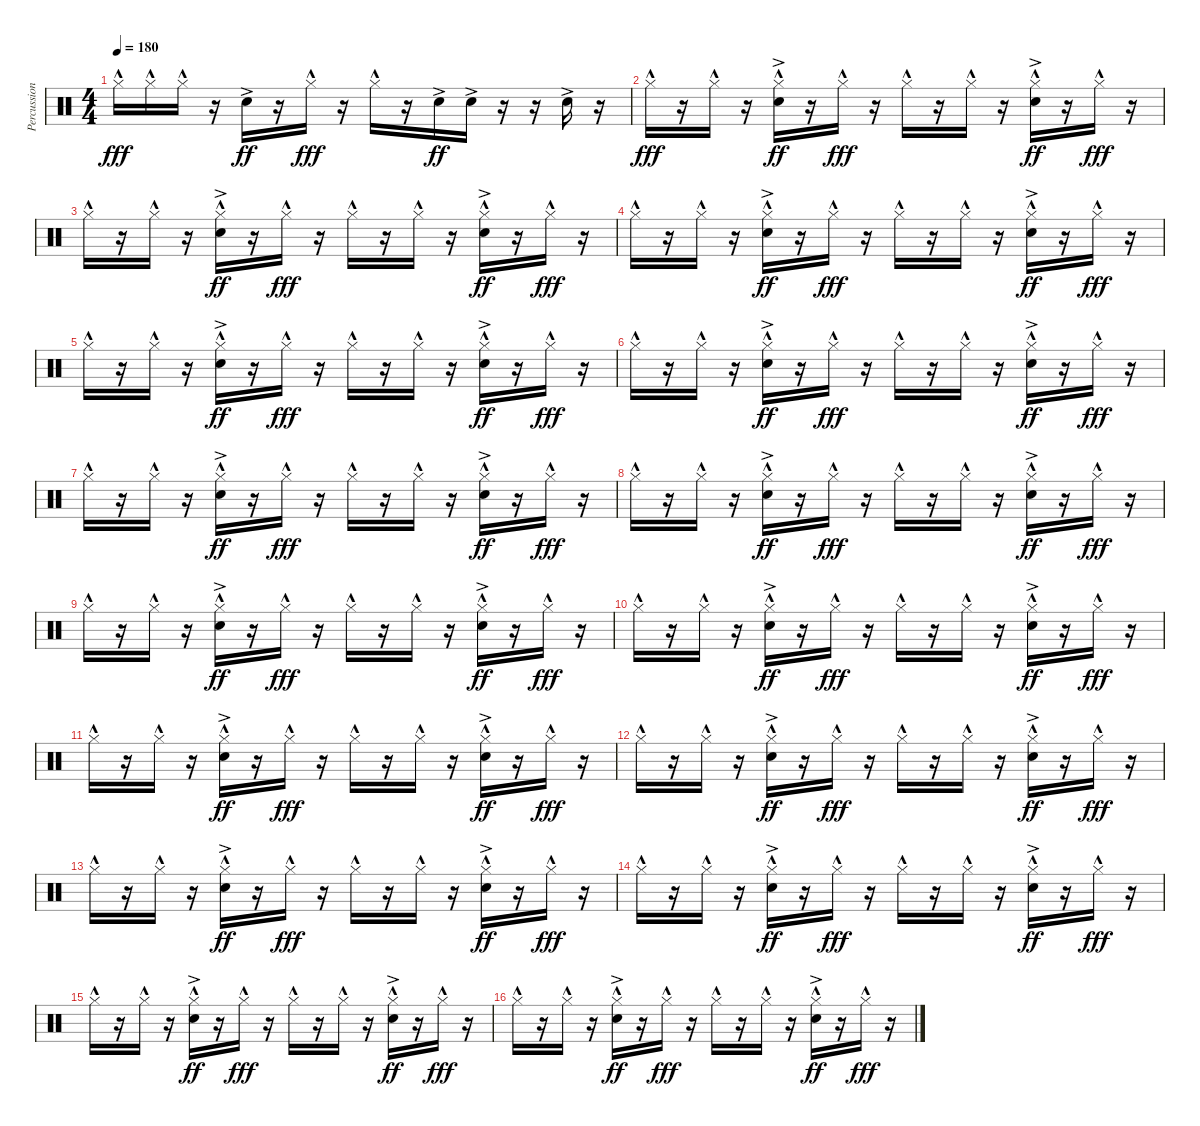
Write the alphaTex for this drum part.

\track ("Percussion" "Percussion") {instrument percussion}
\staff {score}
\articulation defaults
\ts (4 4)
\tempo 180
\clef neutral
\ks c "Hi-Hat (closed)"{hac}.16{dy fff} "Hi-Hat (closed)"{hac}.16 "Hi-Hat (closed)"{hac}.16
r.16 "Snare (hit) 2"{ac}.16{dy ff} r.16 "Hi-Hat (closed)"{hac}.16{dy fff} r.16 "Hi-Hat (closed)"{hac}.16 r.16 "Snare (hit) 2"{ac}.16{dy ff} "Snare (hit) 2"{ac}.16 r.16 r.16 "Snare (hit) 2"{ac}.16 r.16 |
"Hi-Hat (closed)"{hac}.16{dy fff} r.16 "Hi-Hat (closed)"{hac}.16 r.16 ("Hi-Hat (closed)"{hac} "Snare (hit) 2"{ac}).16{dy ff} r.16 "Hi-Hat (closed)"{hac}.16{dy fff} r.16 "Hi-Hat (closed)"{hac}.16 r.16 "Hi-Hat (closed)"{hac}.16 r.16 ("Hi-Hat (closed)"{hac} "Snare (hit) 2"{ac}).16{dy ff} r.16 "Hi-Hat (closed)"{hac}.16{dy fff} r.16 |
"Hi-Hat (closed)"{hac}.16 r.16 "Hi-Hat (closed)"{hac}.16 r.16 ("Hi-Hat (closed)"{hac} "Snare (hit) 2"{ac}).16{dy ff} r.16 "Hi-Hat (closed)"{hac}.16{dy fff} r.16 "Hi-Hat (closed)"{hac}.16 r.16 "Hi-Hat (closed)"{hac}.16 r.16 ("Hi-Hat (closed)"{hac} "Snare (hit) 2"{ac}).16{dy ff} r.16 "Hi-Hat (closed)"{hac}.16{dy fff} r.16 |
"Hi-Hat (closed)"{hac}.16 r.16 "Hi-Hat (closed)"{hac}.16 r.16 ("Hi-Hat (closed)"{hac} "Snare (hit) 2"{ac}).16{dy ff} r.16 "Hi-Hat (closed)"{hac}.16{dy fff} r.16 "Hi-Hat (closed)"{hac}.16 r.16 "Hi-Hat (closed)"{hac}.16 r.16 ("Hi-Hat (closed)"{hac} "Snare (hit) 2"{ac}).16{dy ff} r.16 "Hi-Hat (closed)"{hac}.16{dy fff} r.16 |
"Hi-Hat (closed)"{hac}.16 r.16 "Hi-Hat (closed)"{hac}.16 r.16 ("Hi-Hat (closed)"{hac} "Snare (hit) 2"{ac}).16{dy ff} r.16 "Hi-Hat (closed)"{hac}.16{dy fff} r.16 "Hi-Hat (closed)"{hac}.16 r.16 "Hi-Hat (closed)"{hac}.16 r.16 ("Hi-Hat (closed)"{hac} "Snare (hit) 2"{ac}).16{dy ff} r.16 "Hi-Hat (closed)"{hac}.16{dy fff} r.16 |
"Hi-Hat (closed)"{hac}.16 r.16 "Hi-Hat (closed)"{hac}.16 r.16 ("Hi-Hat (closed)"{hac} "Snare (hit) 2"{ac}).16{dy ff} r.16 "Hi-Hat (closed)"{hac}.16{dy fff} r.16 "Hi-Hat (closed)"{hac}.16 r.16 "Hi-Hat (closed)"{hac}.16 r.16 ("Hi-Hat (closed)"{hac} "Snare (hit) 2"{ac}).16{dy ff} r.16 "Hi-Hat (closed)"{hac}.16{dy fff} r.16 |
"Hi-Hat (closed)"{hac}.16 r.16 "Hi-Hat (closed)"{hac}.16 r.16 ("Hi-Hat (closed)"{hac} "Snare (hit) 2"{ac}).16{dy ff} r.16 "Hi-Hat (closed)"{hac}.16{dy fff} r.16 "Hi-Hat (closed)"{hac}.16 r.16 "Hi-Hat (closed)"{hac}.16 r.16 ("Hi-Hat (closed)"{hac} "Snare (hit) 2"{ac}).16{dy ff} r.16 "Hi-Hat (closed)"{hac}.16{dy fff} r.16 |
"Hi-Hat (closed)"{hac}.16 r.16 "Hi-Hat (closed)"{hac}.16 r.16 ("Hi-Hat (closed)"{hac} "Snare (hit) 2"{ac}).16{dy ff} r.16 "Hi-Hat (closed)"{hac}.16{dy fff} r.16 "Hi-Hat (closed)"{hac}.16 r.16 "Hi-Hat (closed)"{hac}.16 r.16 ("Hi-Hat (closed)"{hac} "Snare (hit) 2"{ac}).16{dy ff} r.16 "Hi-Hat (closed)"{hac}.16{dy fff} r.16 |
"Hi-Hat (closed)"{hac}.16 r.16 "Hi-Hat (closed)"{hac}.16 r.16 ("Hi-Hat (closed)"{hac} "Snare (hit) 2"{ac}).16{dy ff} r.16 "Hi-Hat (closed)"{hac}.16{dy fff} r.16 "Hi-Hat (closed)"{hac}.16 r.16 "Hi-Hat (closed)"{hac}.16 r.16 ("Hi-Hat (closed)"{hac} "Snare (hit) 2"{ac}).16{dy ff} r.16 "Hi-Hat (closed)"{hac}.16{dy fff} r.16 |
"Hi-Hat (closed)"{hac}.16 r.16 "Hi-Hat (closed)"{hac}.16 r.16 ("Hi-Hat (closed)"{hac} "Snare (hit) 2"{ac}).16{dy ff} r.16 "Hi-Hat (closed)"{hac}.16{dy fff} r.16 "Hi-Hat (closed)"{hac}.16 r.16 "Hi-Hat (closed)"{hac}.16 r.16 ("Hi-Hat (closed)"{hac} "Snare (hit) 2"{ac}).16{dy ff} r.16 "Hi-Hat (closed)"{hac}.16{dy fff} r.16 |
"Hi-Hat (closed)"{hac}.16 r.16 "Hi-Hat (closed)"{hac}.16 r.16 ("Hi-Hat (closed)"{hac} "Snare (hit) 2"{ac}).16{dy ff} r.16 "Hi-Hat (closed)"{hac}.16{dy fff} r.16 "Hi-Hat (closed)"{hac}.16 r.16 "Hi-Hat (closed)"{hac}.16 r.16 ("Hi-Hat (closed)"{hac} "Snare (hit) 2"{ac}).16{dy ff} r.16 "Hi-Hat (closed)"{hac}.16{dy fff} r.16 |
"Hi-Hat (closed)"{hac}.16 r.16 "Hi-Hat (closed)"{hac}.16 r.16 ("Hi-Hat (closed)"{hac} "Snare (hit) 2"{ac}).16{dy ff} r.16 "Hi-Hat (closed)"{hac}.16{dy fff} r.16 "Hi-Hat (closed)"{hac}.16 r.16 "Hi-Hat (closed)"{hac}.16 r.16 ("Hi-Hat (closed)"{hac} "Snare (hit) 2"{ac}).16{dy ff} r.16 "Hi-Hat (closed)"{hac}.16{dy fff} r.16 |
"Hi-Hat (closed)"{hac}.16 r.16 "Hi-Hat (closed)"{hac}.16 r.16 ("Hi-Hat (closed)"{hac} "Snare (hit) 2"{ac}).16{dy ff} r.16 "Hi-Hat (closed)"{hac}.16{dy fff} r.16 "Hi-Hat (closed)"{hac}.16 r.16 "Hi-Hat (closed)"{hac}.16 r.16 ("Hi-Hat (closed)"{hac} "Snare (hit) 2"{ac}).16{dy ff} r.16 "Hi-Hat (closed)"{hac}.16{dy fff} r.16 |
"Hi-Hat (closed)"{hac}.16 r.16 "Hi-Hat (closed)"{hac}.16 r.16 ("Hi-Hat (closed)"{hac} "Snare (hit) 2"{ac}).16{dy ff} r.16 "Hi-Hat (closed)"{hac}.16{dy fff} r.16 "Hi-Hat (closed)"{hac}.16 r.16 "Hi-Hat (closed)"{hac}.16 r.16 ("Hi-Hat (closed)"{hac} "Snare (hit) 2"{ac}).16{dy ff} r.16 "Hi-Hat (closed)"{hac}.16{dy fff} r.16 |
"Hi-Hat (closed)"{hac}.16 r.16 "Hi-Hat (closed)"{hac}.16 r.16 ("Hi-Hat (closed)"{hac} "Snare (hit) 2"{ac}).16{dy ff} r.16 "Hi-Hat (closed)"{hac}.16{dy fff} r.16 "Hi-Hat (closed)"{hac}.16 r.16 "Hi-Hat (closed)"{hac}.16 r.16 ("Hi-Hat (closed)"{hac} "Snare (hit) 2"{ac}).16{dy ff} r.16 "Hi-Hat (closed)"{hac}.16{dy fff} r.16 |
"Hi-Hat (closed)"{hac}.16 r.16 "Hi-Hat (closed)"{hac}.16 r.16 ("Hi-Hat (closed)"{hac} "Snare (hit) 2"{ac}).16{dy ff} r.16 "Hi-Hat (closed)"{hac}.16{dy fff} r.16 "Hi-Hat (closed)"{hac}.16 r.16 "Hi-Hat (closed)"{hac}.16 r.16 ("Hi-Hat (closed)"{hac} "Snare (hit) 2"{ac}).16{dy ff} r.16 "Hi-Hat (closed)"{hac}.16{dy fff} r.16
